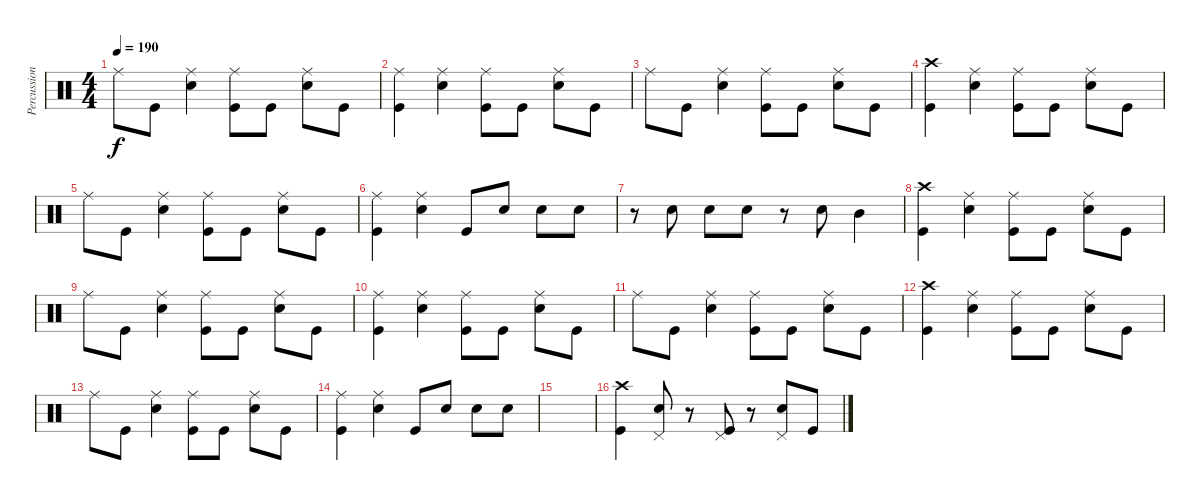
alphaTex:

\track ("Percussion" "Percussion") {mute instrument percussion}
\staff {score}
\articulation defaults
\ts (4 4)
\tempo 190
\clef neutral
\ks c "Ride (middle)".8{dy f} "Kick (hit)".8
("Ride (middle)" "Snare (hit) 2").4 ("Ride (middle)" "Kick (hit)").8 "Kick (hit)".8 ("Ride (middle)" "Snare (hit) 2").8 "Kick (hit)".8 |
("Ride (middle)" "Kick (hit)").4 ("Ride (middle)" "Snare (hit) 2").4 ("Ride (middle)" "Kick (hit)").8 "Kick (hit)".8 ("Ride (middle)" "Snare (hit) 2").8 "Kick (hit)".8 |
"Ride (middle)".8 "Kick (hit)".8 ("Ride (middle)" "Snare (hit) 2").4 ("Ride (middle)" "Kick (hit)").8 "Kick (hit)".8 ("Ride (middle)" "Snare (hit) 2").8 "Kick (hit)".8 |
("Crash high (hit)" "Kick (hit)").4 ("Ride (middle)" "Snare (hit) 2").4 ("Ride (middle)" "Kick (hit)").8 "Kick (hit)".8 ("Ride (middle)" "Snare (hit) 2").8 "Kick (hit)".8 |
"Ride (middle)".8 "Kick (hit)".8 ("Ride (middle)" "Snare (hit) 2").4 ("Ride (middle)" "Kick (hit)").8 "Kick (hit)".8 ("Ride (middle)" "Snare (hit) 2").8 "Kick (hit)".8 |
("Ride (middle)" "Kick (hit)").4 ("Ride (middle)" "Snare (hit) 2").4 "Kick (hit)".8 "Snare (hit) 2".8 "Snare (hit) 2".8 "Snare (hit) 2".8 |
r.8 "Snare (hit) 2".8 "Snare (hit) 2".8 "Snare (hit) 2".8 r.8 "Snare (hit) 2".8 "Mid Tom (hit)".4 |
("Crash high (hit)" "Kick (hit)").4 ("Ride (middle)" "Snare (hit) 2").4 ("Ride (middle)" "Kick (hit)").8 "Kick (hit)".8 ("Ride (middle)" "Snare (hit) 2").8 "Kick (hit)".8 |
"Ride (middle)".8 "Kick (hit)".8 ("Ride (middle)" "Snare (hit) 2").4 ("Ride (middle)" "Kick (hit)").8 "Kick (hit)".8 ("Ride (middle)" "Snare (hit) 2").8 "Kick (hit)".8 |
("Ride (middle)" "Kick (hit)").4 ("Ride (middle)" "Snare (hit) 2").4 ("Ride (middle)" "Kick (hit)").8 "Kick (hit)".8 ("Ride (middle)" "Snare (hit) 2").8 "Kick (hit)".8 |
"Ride (middle)".8 "Kick (hit)".8 ("Ride (middle)" "Snare (hit) 2").4 ("Ride (middle)" "Kick (hit)").8 "Kick (hit)".8 ("Ride (middle)" "Snare (hit) 2").8 "Kick (hit)".8 |
("Crash high (hit)" "Kick (hit)").4 ("Ride (middle)" "Snare (hit) 2").4 ("Ride (middle)" "Kick (hit)").8 "Kick (hit)".8 ("Ride (middle)" "Snare (hit) 2").8 "Kick (hit)".8 |
"Ride (middle)".8 "Kick (hit)".8 ("Ride (middle)" "Snare (hit) 2").4 ("Ride (middle)" "Kick (hit)").8 "Kick (hit)".8 ("Ride (middle)" "Snare (hit) 2").8 "Kick (hit)".8 |
("Ride (middle)" "Kick (hit)").4 ("Ride (middle)" "Snare (hit) 2").4 "Kick (hit)".8 "Snare (hit) 2".8 "Snare (hit) 2".8 "Snare (hit) 2".8 |
|
("Crash high (hit)" "Kick (hit)").4 ("Pedal Hi-Hat (hit)" "Snare (hit) 2").8 r.8 ("Pedal Hi-Hat (hit)" "Kick (hit)").8 r.8 ("Pedal Hi-Hat (hit)" "Snare (hit) 2").8 "Kick (hit)".8
